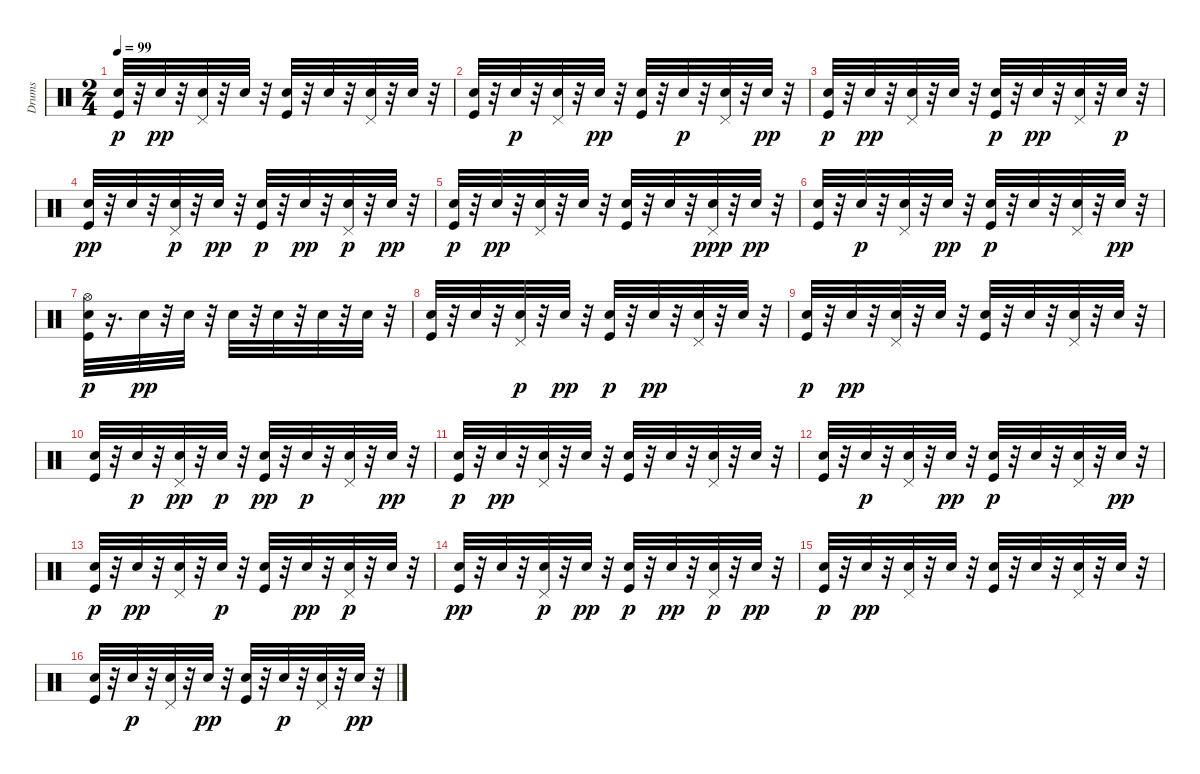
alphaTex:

\track ("Drums" "Drums") {instrument percussion}
\staff {score}
\articulation defaults
\ts (2 4)
\tempo 99
\clef neutral
\ks c
("Hand Clap (hit)" "Kick (hit)").32{dy p} r.32 "Snare (hit) 2".32{dy pp} r.32 ("Pedal Hi-Hat (hit)" "Snare (hit) 2").32 r.32 "Hand Clap (hit)".32 r.32 ("Kick (hit)" "Hand Clap (hit)").32 r.32 "Snare (hit) 2".32 r.32 ("Hand Clap (hit)" "Pedal Hi-Hat (hit)").32 r.32 "Hand Clap (hit)".32 r.32 |
("Kick (hit)" "Hand Clap (hit)").32 r.32 "Snare (hit) 2".32{dy p} r.32 ("Pedal Hi-Hat (hit)" "Snare (hit) 2").32 r.32 "Hand Clap (hit)".32{dy pp} r.32 ("Kick (hit)" "Snare (hit) 2").32 r.32 "Snare (hit) 2".32{dy p} r.32 ("Pedal Hi-Hat (hit)" "Snare (hit) 2").32 r.32 "Hand Clap (hit)".32{dy pp} r.32 |
("Hand Clap (hit)" "Kick (hit)").32{dy p} r.32 "Snare (hit) 2".32{dy pp} r.32 ("Pedal Hi-Hat (hit)" "Snare (hit) 2").32 r.32 "Hand Clap (hit)".32 r.32 ("Hand Clap (hit)" "Kick (hit)").32{dy p} r.32 "Snare (hit) 2".32{dy pp} r.32 ("Pedal Hi-Hat (hit)" "Hand Clap (hit)").32 r.32 "Snare (hit) 2".32{dy p} r.32 |
("Kick (hit)" "Hand Clap (hit)").32{dy pp} r.32 "Snare (hit) 2".32 r.32 ("Pedal Hi-Hat (hit)" "Snare (hit) 2").32{dy p} r.32 "Snare (hit) 2".32{dy pp} r.32 ("Hand Clap (hit)" "Kick (hit)").32{dy p} r.32 "Snare (hit) 2".32{dy pp} r.32 ("Pedal Hi-Hat (hit)" "Snare (hit) 2").32{dy p} r.32 "Snare (hit) 2".32{dy pp} r.32 |
("Hand Clap (hit)" "Kick (hit)").32{dy p} r.32 "Snare (hit) 2".32{dy pp} r.32 ("Pedal Hi-Hat (hit)" "Snare (hit) 2").32 r.32 "Hand Clap (hit)".32 r.32 ("Kick (hit)" "Hand Clap (hit)").32 r.32 "Snare (hit) 2".32 r.32 ("Hand Clap (hit)" "Pedal Hi-Hat (hit)").32{dy ppp} r.32 "Snare (hit) 2".32{dy pp} r.32 |
("Kick (hit)" "Hand Clap (hit)").32 r.32 "Snare (hit) 2".32{dy p} r.32 ("Pedal Hi-Hat (hit)" "Snare (hit) 2").32 r.32 "Snare (hit) 2".32{dy pp} r.32 ("Hand Clap (hit)" "Kick (hit)").32{dy p} r.32 "Snare (hit) 2".32 r.32 ("Pedal Hi-Hat (hit)" "Snare (hit) 2").32 r.32 "Snare (hit) 2".32{dy pp} r.32 |
("Hand Clap (hit)" "Hi-Hat (open)" "Kick (hit)").32{dy p} r.16{d} "Snare (hit) 2".32{dy pp} r.32 "Hand Clap (hit)".32 r.32 "Hand Clap (hit)".32 r.32 "Snare (hit) 2".32 r.32 "Hand Clap (hit)".32 r.32 "Hand Clap (hit)".32 r.32 |
("Kick (hit)" "Hand Clap (hit)").32 r.32 "Snare (hit) 2".32 r.32 ("Pedal Hi-Hat (hit)" "Snare (hit) 2").32{dy p} r.32 "Hand Clap (hit)".32{dy pp} r.32 ("Hand Clap (hit)" "Kick (hit)").32{dy p} r.32 "Snare (hit) 2".32{dy pp} r.32 ("Pedal Hi-Hat (hit)" "Hand Clap (hit)").32 r.32 "Snare (hit) 2".32 r.32 |
("Hand Clap (hit)" "Kick (hit)").32{dy p} r.32 "Snare (hit) 2".32{dy pp} r.32 ("Pedal Hi-Hat (hit)" "Snare (hit) 2").32 r.32 "Snare (hit) 2".32 r.32 ("Kick (hit)" "Hand Clap (hit)").32 r.32 "Snare (hit) 2".32 r.32 ("Hand Clap (hit)" "Pedal Hi-Hat (hit)").32 r.32 "Snare (hit) 2".32 r.32 |
("Kick (hit)" "Hand Clap (hit)").32 r.32 "Snare (hit) 2".32{dy p} r.32 ("Pedal Hi-Hat (hit)" "Snare (hit) 2").32{dy pp} r.32 "Hand Clap (hit)".32{dy p} r.32 ("Kick (hit)" "Snare (hit) 2").32{dy pp} r.32 "Snare (hit) 2".32{dy p} r.32 ("Pedal Hi-Hat (hit)" "Snare (hit) 2").32 r.32 "Snare (hit) 2".32{dy pp} r.32 |
("Hand Clap (hit)" "Kick (hit)").32{dy p} r.32 "Snare (hit) 2".32{dy pp} r.32 ("Pedal Hi-Hat (hit)" "Snare (hit) 2").32 r.32 "Hand Clap (hit)".32 r.32 ("Kick (hit)" "Hand Clap (hit)").32 r.32 "Snare (hit) 2".32 r.32 ("Pedal Hi-Hat (hit)" "Hand Clap (hit)").32 r.32 "Hand Clap (hit)".32 r.32 |
("Kick (hit)" "Hand Clap (hit)").32 r.32 "Snare (hit) 2".32{dy p} r.32 ("Pedal Hi-Hat (hit)" "Snare (hit) 2").32 r.32 "Snare (hit) 2".32{dy pp} r.32 ("Hand Clap (hit)" "Kick (hit)").32{dy p} r.32 "Snare (hit) 2".32 r.32 ("Pedal Hi-Hat (hit)" "Snare (hit) 2").32 r.32 "Hand Clap (hit)".32{dy pp} r.32 |
("Hand Clap (hit)" "Kick (hit)").32{dy p} r.32 "Snare (hit) 2".32{dy pp} r.32 ("Pedal Hi-Hat (hit)" "Snare (hit) 2").32 r.32 "Snare (hit) 2".32{dy p} r.32 ("Hand Clap (hit)" "Kick (hit)").32 r.32 "Hand Clap (hit)".32{dy pp} r.32 ("Pedal Hi-Hat (hit)" "Snare (hit) 2").32{dy p} r.32 "Snare (hit) 2".32 r.32 |
("Kick (hit)" "Hand Clap (hit)").32{dy pp} r.32 "Snare (hit) 2".32 r.32 ("Pedal Hi-Hat (hit)" "Snare (hit) 2").32{dy p} r.32 "Snare (hit) 2".32{dy pp} r.32 ("Hand Clap (hit)" "Kick (hit)").32{dy p} r.32 "Snare (hit) 2".32{dy pp} r.32 ("Pedal Hi-Hat (hit)" "Snare (hit) 2").32{dy p} r.32 "Snare (hit) 2".32{dy pp} r.32 |
("Hand Clap (hit)" "Kick (hit)").32{dy p} r.32 "Snare (hit) 2".32{dy pp} r.32 ("Pedal Hi-Hat (hit)" "Snare (hit) 2").32 r.32 "Hand Clap (hit)".32 r.32 ("Kick (hit)" "Hand Clap (hit)").32 r.32 "Snare (hit) 2".32 r.32 ("Hand Clap (hit)" "Pedal Hi-Hat (hit)").32 r.32 "Hand Clap (hit)".32 r.32 |
("Kick (hit)" "Hand Clap (hit)").32 r.32 "Snare (hit) 2".32{dy p} r.32 ("Pedal Hi-Hat (hit)" "Snare (hit) 2").32 r.32 "Hand Clap (hit)".32{dy pp} r.32 ("Kick (hit)" "Snare (hit) 2").32 r.32 "Snare (hit) 2".32{dy p} r.32 ("Pedal Hi-Hat (hit)" "Snare (hit) 2").32 r.32 "Hand Clap (hit)".32{dy pp} r.32
